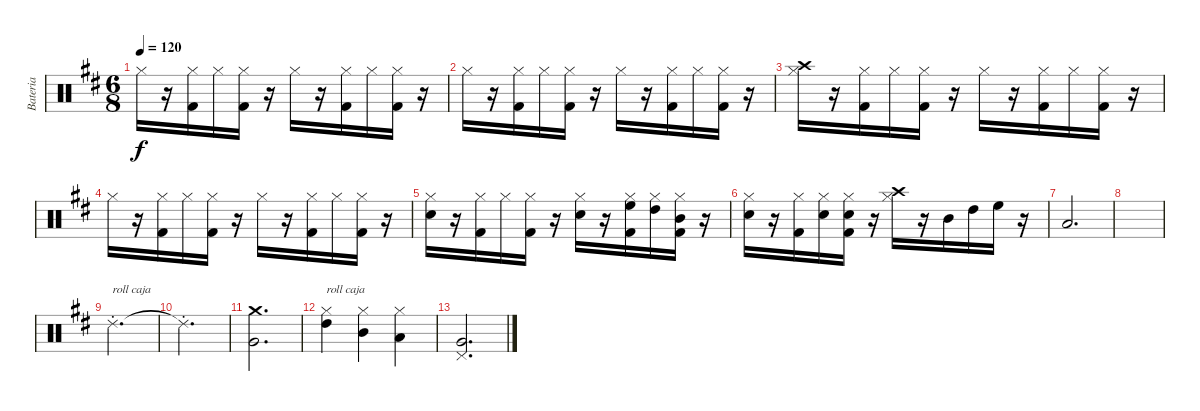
\track ("Bateria" "Bateria") {instrument percussion}
\staff {score}
\articulation defaults
\ts (6 8)
\tempo 120
\clef neutral
\ks d "Hi-Hat (closed)".16{dy f}
r.16 ("Hi-Hat (closed)" "Kick (hit) 2").16 "Hi-Hat (closed)".16 ("Hi-Hat (closed)" "Kick (hit) 2").16 r.16 "Hi-Hat (closed)".16 r.16 ("Hi-Hat (closed)" "Kick (hit) 2").16 "Hi-Hat (closed)".16 ("Hi-Hat (closed)" "Kick (hit) 2").16 r.16 |
"Hi-Hat (closed)".16 r.16 ("Hi-Hat (closed)" "Kick (hit) 2").16 "Hi-Hat (closed)".16 ("Hi-Hat (closed)" "Kick (hit) 2").16 r.16 "Hi-Hat (closed)".16 r.16 ("Hi-Hat (closed)" "Kick (hit) 2").16 "Hi-Hat (closed)".16 ("Hi-Hat (closed)" "Kick (hit) 2").16 r.16 |
("Hi-Hat (closed)" "Crash high (hit)").16 r.16 ("Hi-Hat (closed)" "Kick (hit) 2").16 "Hi-Hat (closed)".16 ("Hi-Hat (closed)" "Kick (hit) 2").16 r.16 "Hi-Hat (closed)".16 r.16 ("Hi-Hat (closed)" "Kick (hit) 2").16 "Hi-Hat (closed)".16 ("Hi-Hat (closed)" "Kick (hit) 2").16 r.16 |
"Hi-Hat (closed)".16 r.16 ("Hi-Hat (closed)" "Kick (hit) 2").16 "Hi-Hat (closed)".16 ("Hi-Hat (closed)" "Kick (hit) 2").16 r.16 "Hi-Hat (closed)".16 r.16 ("Hi-Hat (closed)" "Kick (hit) 2").16 "Hi-Hat (closed)".16 ("Hi-Hat (closed)" "Kick (hit) 2").16 r.16 |
("Hi-Hat (closed)" "Electric Snare (hit)").16 r.16 ("Hi-Hat (closed)" "Kick (hit) 2").16 "Hi-Hat (closed)".16 ("Hi-Hat (closed)" "Kick (hit) 2").16 r.16 ("Hi-Hat (closed)" "Electric Snare (hit)").16 r.16 ("Hi-Hat (closed)" "Kick (hit) 2" "High Floor Tom (hit)").16 ("Hi-Hat (closed)" "High Tom (hit)").16 ("Hi-Hat (closed)" "Kick (hit) 2" "Mid Tom (hit)").16 r.16 |
("Hi-Hat (closed)" "Electric Snare (hit)").16 r.16 ("Hi-Hat (closed)" "Kick (hit) 2").16 ("Hi-Hat (closed)" "Electric Snare (hit)").16 ("Hi-Hat (closed)" "Kick (hit) 2" "Electric Snare (hit)").16 r.16 ("Hi-Hat (closed)" "Crash high (hit)").16 r.16 "Mid Tom (hit)".16 "High Tom (hit)".16 "High Floor Tom (hit)".16 r.16 |
"Low Floor Tom (hit)".2{d} |
|
"Ride (choke) 2".2{d txt "roll caja"} |
"Ride (choke) 2"{t}.2{d} |
("Very Low Tom (hit)" "Crash medium (hit)").2{d} |
("High Tom (hit)" "Hi-Hat (closed)").4{txt "roll caja"} ("Mid Tom (hit)" "Hi-Hat (closed)").4 ("Low Tom (hit)" "Hi-Hat (closed)").4 |
("Very Low Tom (hit)" "Pedal Hi-Hat (hit)").2{d}
